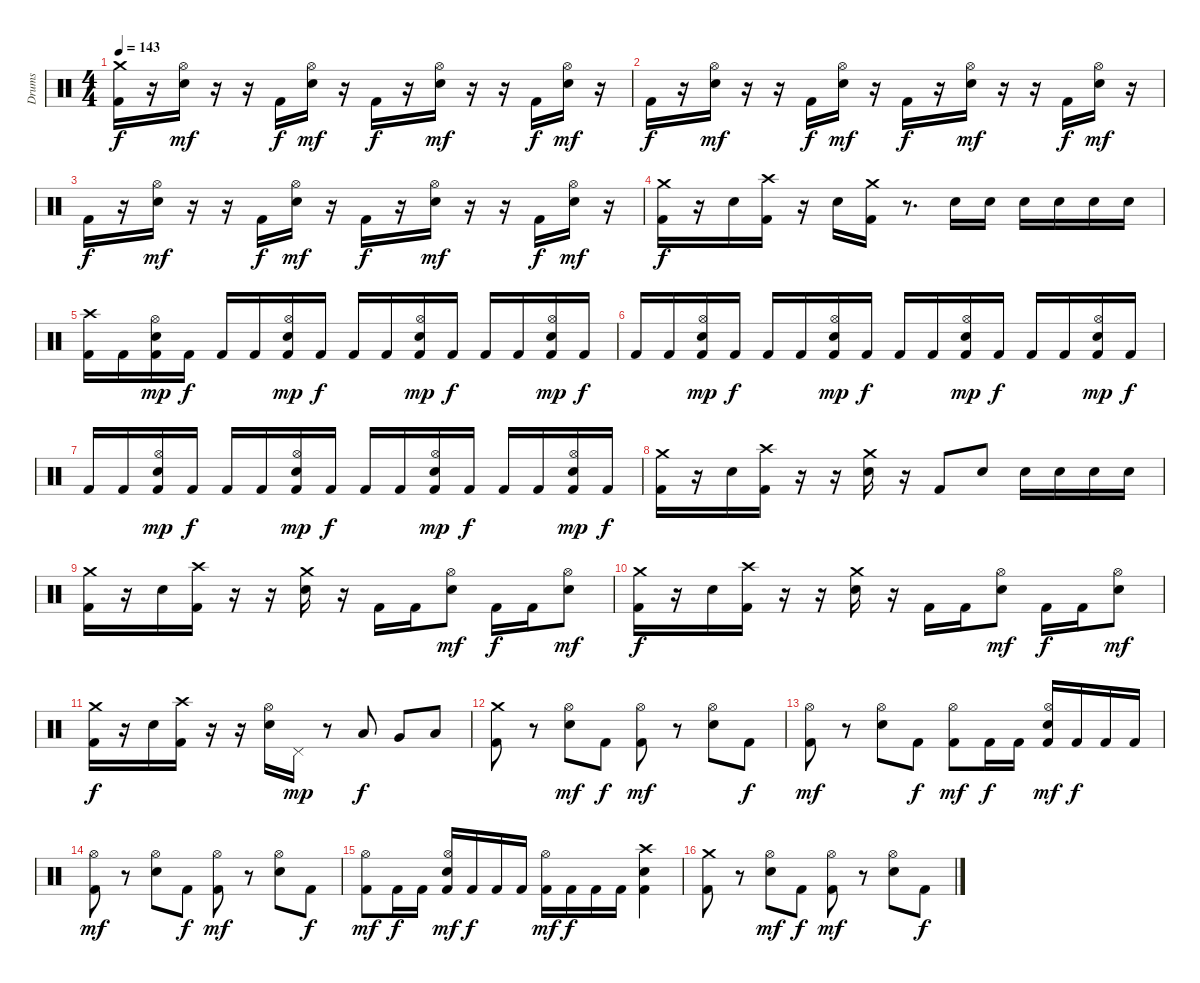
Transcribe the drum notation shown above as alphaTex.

\track ("Drums" "Drums") {instrument percussion}
\staff {score}
\articulation defaults
\ts (4 4)
\tempo 143
\clef neutral
\ks c
("Crash medium (hit)" "Kick (hit) 2").16{dy f} r.16 ("Hi-Hat (open)" "Electric Snare (hit)").16{dy mf} r.16 r.16 "Kick (hit) 2".16{dy f} ("Hi-Hat (open)" "Electric Snare (hit)").16{dy mf} r.16 "Kick (hit) 2".16{dy f} r.16 ("Hi-Hat (open)" "Electric Snare (hit)").16{dy mf} r.16 r.16 "Kick (hit) 2".16{dy f} ("Hi-Hat (open)" "Electric Snare (hit)").16{dy mf} r.16 |
"Kick (hit) 2".16{dy f} r.16 ("Hi-Hat (open)" "Electric Snare (hit)").16{dy mf} r.16 r.16 "Kick (hit) 2".16{dy f} ("Hi-Hat (open)" "Electric Snare (hit)").16{dy mf} r.16 "Kick (hit) 2".16{dy f} r.16 ("Hi-Hat (open)" "Electric Snare (hit)").16{dy mf} r.16 r.16 "Kick (hit) 2".16{dy f} ("Hi-Hat (open)" "Electric Snare (hit)").16{dy mf} r.16 |
"Kick (hit) 2".16{dy f} r.16 ("Hi-Hat (open)" "Electric Snare (hit)").16{dy mf} r.16 r.16 "Kick (hit) 2".16{dy f} ("Hi-Hat (open)" "Electric Snare (hit)").16{dy mf} r.16 "Kick (hit) 2".16{dy f} r.16 ("Hi-Hat (open)" "Electric Snare (hit)").16{dy mf} r.16 r.16 "Kick (hit) 2".16{dy f} ("Hi-Hat (open)" "Electric Snare (hit)").16{dy mf} r.16 |
("Crash medium (hit)" "Kick (hit) 2").16{dy f} r.16 "Electric Snare (hit)".16 ("Crash high (hit)" "Kick (hit) 2").16 r.16 "Electric Snare (hit)".16 ("Crash medium (hit)" "Kick (hit) 2").16 r.8{d} "Electric Snare (hit)".16 "Electric Snare (hit)".16 "Electric Snare (hit)".16 "Electric Snare (hit)".16 "Electric Snare (hit)".16 "Electric Snare (hit)".16 |
("Crash high (hit)" "Kick (hit) 2").16 "Kick (hit) 2".16 ("Hi-Hat (open)" "Electric Snare (hit)" "Kick (hit) 2").16{dy mp} "Kick (hit) 2".16{dy f} "Kick (hit) 2".16 "Kick (hit) 2".16 ("Hi-Hat (open)" "Electric Snare (hit)" "Kick (hit) 2").16{dy mp} "Kick (hit) 2".16{dy f} "Kick (hit) 2".16 "Kick (hit) 2".16 ("Hi-Hat (open)" "Electric Snare (hit)" "Kick (hit) 2").16{dy mp} "Kick (hit) 2".16{dy f} "Kick (hit) 2".16 "Kick (hit) 2".16 ("Hi-Hat (open)" "Electric Snare (hit)" "Kick (hit) 2").16{dy mp} "Kick (hit) 2".16{dy f} |
"Kick (hit) 2".16 "Kick (hit) 2".16 ("Hi-Hat (open)" "Electric Snare (hit)" "Kick (hit) 2").16{dy mp} "Kick (hit) 2".16{dy f} "Kick (hit) 2".16 "Kick (hit) 2".16 ("Hi-Hat (open)" "Electric Snare (hit)" "Kick (hit) 2").16{dy mp} "Kick (hit) 2".16{dy f} "Kick (hit) 2".16 "Kick (hit) 2".16 ("Hi-Hat (open)" "Electric Snare (hit)" "Kick (hit) 2").16{dy mp} "Kick (hit) 2".16{dy f} "Kick (hit) 2".16 "Kick (hit) 2".16 ("Hi-Hat (open)" "Electric Snare (hit)" "Kick (hit) 2").16{dy mp} "Kick (hit) 2".16{dy f} |
"Kick (hit) 2".16 "Kick (hit) 2".16 ("Hi-Hat (open)" "Electric Snare (hit)" "Kick (hit) 2").16{dy mp} "Kick (hit) 2".16{dy f} "Kick (hit) 2".16 "Kick (hit) 2".16 ("Hi-Hat (open)" "Electric Snare (hit)" "Kick (hit) 2").16{dy mp} "Kick (hit) 2".16{dy f} "Kick (hit) 2".16 "Kick (hit) 2".16 ("Hi-Hat (open)" "Electric Snare (hit)" "Kick (hit) 2").16{dy mp} "Kick (hit) 2".16{dy f} "Kick (hit) 2".16 "Kick (hit) 2".16 ("Hi-Hat (open)" "Electric Snare (hit)" "Kick (hit) 2").16{dy mp} "Kick (hit) 2".16{dy f} |
("Crash medium (hit)" "Kick (hit) 2").16 r.16 "Electric Snare (hit)".16 ("Crash high (hit)" "Kick (hit) 2").16 r.16 r.16 ("Crash medium (hit)" "Electric Snare (hit)").16 r.16 "Kick (hit) 2".8 "Electric Snare (hit)".8 "Electric Snare (hit)".16 "Electric Snare (hit)".16 "Electric Snare (hit)".16 "Electric Snare (hit)".16 |
("Crash medium (hit)" "Kick (hit) 2").16 r.16 "Electric Snare (hit)".16 ("Crash high (hit)" "Kick (hit) 2").16 r.16 r.16 ("Crash medium (hit)" "Electric Snare (hit)").16 r.16 "Kick (hit) 2".16 "Kick (hit) 2".16 ("Hi-Hat (open)" "Electric Snare (hit)").8{dy mf} "Kick (hit) 2".16{dy f} "Kick (hit) 2".16 ("Hi-Hat (open)" "Electric Snare (hit)").8{dy mf} |
("Crash medium (hit)" "Kick (hit) 2").16{dy f} r.16 "Electric Snare (hit)".16 ("Crash high (hit)" "Kick (hit) 2").16 r.16 r.16 ("Crash medium (hit)" "Electric Snare (hit)").16 r.16 "Kick (hit) 2".16 "Kick (hit) 2".16 ("Hi-Hat (open)" "Electric Snare (hit)").8{dy mf} "Kick (hit) 2".16{dy f} "Kick (hit) 2".16 ("Hi-Hat (open)" "Electric Snare (hit)").8{dy mf} |
("Crash medium (hit)" "Kick (hit) 2").16{dy f} r.16 "Electric Snare (hit)".16 ("Crash high (hit)" "Kick (hit) 2").16 r.16 r.16 ("Hi-Hat (open)" "Electric Snare (hit)").16 "Pedal Hi-Hat (hit)".16{dy mp} r.8 "Low Tom (hit)".8{dy f} "Very Low Tom (hit)".8 "Low Floor Tom (hit)".8 |
("Crash medium (hit)" "Kick (hit) 2").8 r.8 ("Hi-Hat (open)" "Electric Snare (hit)").8{dy mf} "Kick (hit) 2".8{dy f} ("Hi-Hat (open)" "Kick (hit) 2").8{dy mf} r.8 ("Hi-Hat (open)" "Electric Snare (hit)").8 "Kick (hit) 2".8{dy f} |
("Hi-Hat (open)" "Kick (hit) 2").8{dy mf} r.8 ("Hi-Hat (open)" "Electric Snare (hit)").8 "Kick (hit) 2".8{dy f} ("Hi-Hat (open)" "Kick (hit) 2").8{dy mf} "Kick (hit) 2".16{dy f} "Kick (hit) 2".16 ("Hi-Hat (open)" "Electric Snare (hit)" "Kick (hit) 2").16{dy mf} "Kick (hit) 2".16{dy f} "Kick (hit) 2".16 "Kick (hit) 2".16 |
("Hi-Hat (open)" "Kick (hit) 2").8{dy mf} r.8 ("Hi-Hat (open)" "Electric Snare (hit)").8 "Kick (hit) 2".8{dy f} ("Hi-Hat (open)" "Kick (hit) 2").8{dy mf} r.8 ("Hi-Hat (open)" "Electric Snare (hit)").8 "Kick (hit) 2".8{dy f} |
("Hi-Hat (open)" "Kick (hit) 2").8{dy mf} "Kick (hit) 2".16{dy f} "Kick (hit) 2".16 ("Hi-Hat (open)" "Electric Snare (hit)" "Kick (hit) 2").16{dy mf} "Kick (hit) 2".16{dy f} "Kick (hit) 2".16 "Kick (hit) 2".16 ("Hi-Hat (open)" "Kick (hit) 2").16{dy mf} "Kick (hit) 2".16{dy f} "Kick (hit) 2".16 "Kick (hit) 2".16 ("Crash high (hit)" "Electric Snare (hit)" "Kick (hit) 2").4 |
("Crash medium (hit)" "Kick (hit) 2").8 r.8 ("Hi-Hat (open)" "Electric Snare (hit)").8{dy mf} "Kick (hit) 2".8{dy f} ("Hi-Hat (open)" "Kick (hit) 2").8{dy mf} r.8 ("Hi-Hat (open)" "Electric Snare (hit)").8 "Kick (hit) 2".8{dy f}
